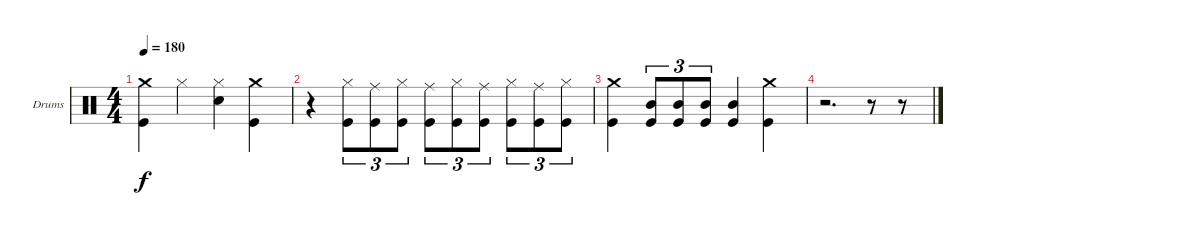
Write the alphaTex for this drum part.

\bracketExtendMode groupsimilarinstruments
\firstSystemTrackNameOrientation horizontal
\otherSystemsTrackNameOrientation horizontal
\track ("Drumkit" "Drums") {instrument percussion}
\staff {score}
\articulation defaults
\ts (4 4)
\tempo 180
\clef neutral
\ks c
("Crash medium (hit)" "Kick (hit)").4{dy f} "Hi-Hat (closed)".4 ("Hi-Hat (closed)" "Snare (hit) 2").4 ("Crash medium (hit)" "Kick (hit)").4 |
r.4 ("Hi-Hat (closed)" "Kick (hit)").8{tu (3 2)} ("Ride (middle)" "Kick (hit)").8{tu (3 2)} ("Hi-Hat (closed)" "Kick (hit)").8{tu (3 2)} ("Ride (middle)" "Kick (hit)").8{tu (3 2)} ("Hi-Hat (closed)" "Kick (hit)").8{tu (3 2)} ("Ride (middle)" "Kick (hit)").8{tu (3 2)} ("Hi-Hat (closed)" "Kick (hit)").8{tu (3 2)} ("Ride (middle)" "Kick (hit)").8{tu (3 2)} ("Hi-Hat (closed)" "Kick (hit)").8{tu (3 2)} |
("Crash medium (hit)" "Kick (hit)").4 ("Mid Tom (hit)" "Kick (hit)").8{tu (3 2)} ("Mid Tom (hit)" "Kick (hit)").8{tu (3 2)} ("Mid Tom (hit)" "Kick (hit)").8{tu (3 2)} ("Mid Tom (hit)" "Kick (hit)").4 ("Crash medium (hit)" "Kick (hit)").4 |
r.2{d} r.8 r.8
